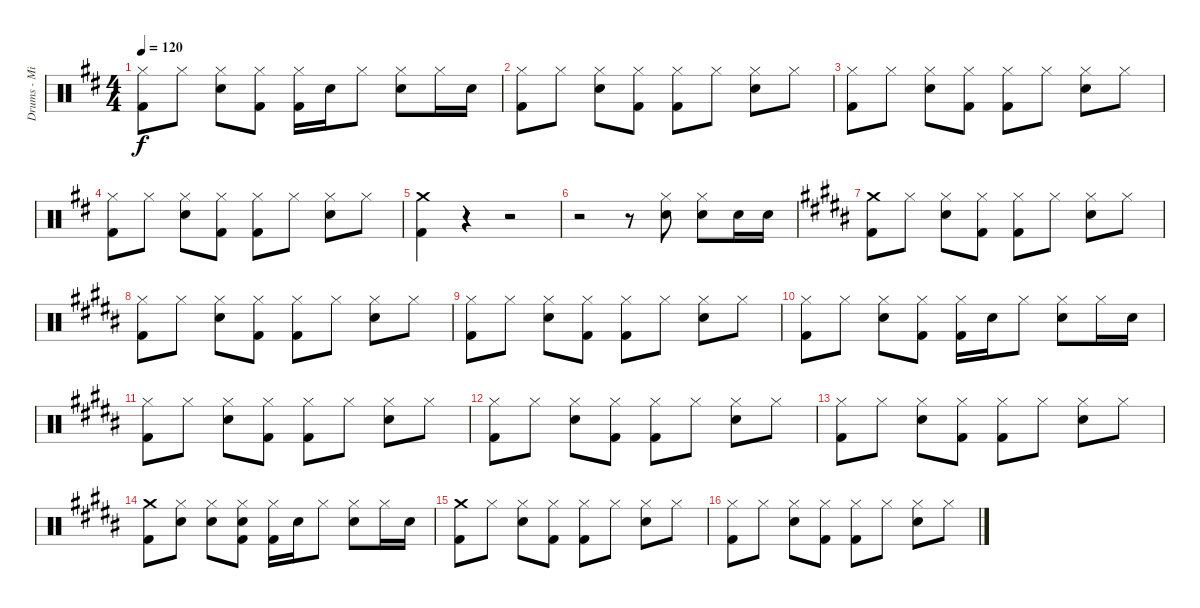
\track ("Drums - Minh-Thu" "Drums - Mi") {instrument percussion}
\staff {score}
\articulation defaults
\ts (4 4)
\tempo 120
\clef neutral
\ks d
("Hi-Hat (closed)" "Kick (hit) 2").8{dy f} "Hi-Hat (closed)".8 ("Hi-Hat (closed)" "Electric Snare (hit)").8 ("Hi-Hat (closed)" "Kick (hit) 2").8 ("Hi-Hat (closed)" "Kick (hit) 2").16 "Electric Snare (hit)".16 "Hi-Hat (closed)".8 ("Hi-Hat (closed)" "Electric Snare (hit)").8 "Hi-Hat (closed)".16 "Electric Snare (hit)".16 |
("Hi-Hat (closed)" "Kick (hit) 2").8 "Hi-Hat (closed)".8 ("Hi-Hat (closed)" "Electric Snare (hit)").8 ("Hi-Hat (closed)" "Kick (hit) 2").8 ("Hi-Hat (closed)" "Kick (hit) 2").8 "Hi-Hat (closed)".8 ("Hi-Hat (closed)" "Electric Snare (hit)").8 "Hi-Hat (closed)".8 |
("Hi-Hat (closed)" "Kick (hit) 2").8 "Hi-Hat (closed)".8 ("Hi-Hat (closed)" "Electric Snare (hit)").8 ("Hi-Hat (closed)" "Kick (hit) 2").8 ("Hi-Hat (closed)" "Kick (hit) 2").8 "Hi-Hat (closed)".8 ("Hi-Hat (closed)" "Electric Snare (hit)").8 "Hi-Hat (closed)".8 |
("Hi-Hat (closed)" "Kick (hit) 2").8 "Hi-Hat (closed)".8 ("Hi-Hat (closed)" "Electric Snare (hit)").8 ("Hi-Hat (closed)" "Kick (hit) 2").8 ("Hi-Hat (closed)" "Kick (hit) 2").8 "Hi-Hat (closed)".8 ("Hi-Hat (closed)" "Electric Snare (hit)").8 "Hi-Hat (closed)".8 |
("Crash medium (hit)" "Kick (hit) 2").4 r.4 r.2 |
r.2 r.8 ("Hi-Hat (closed)" "Electric Snare (hit)").8 ("Hi-Hat (closed)" "Electric Snare (hit)").8 "Electric Snare (hit)".16 "Electric Snare (hit)".16 |
\ks b
("Crash medium (hit)" "Kick (hit) 2").8 "Hi-Hat (closed)".8 ("Hi-Hat (closed)" "Electric Snare (hit)").8 ("Hi-Hat (closed)" "Kick (hit) 2").8 ("Hi-Hat (closed)" "Kick (hit) 2").8 "Hi-Hat (closed)".8 ("Hi-Hat (closed)" "Electric Snare (hit)").8 "Hi-Hat (closed)".8 |
("Hi-Hat (closed)" "Kick (hit) 2").8 "Hi-Hat (closed)".8 ("Hi-Hat (closed)" "Electric Snare (hit)").8 ("Hi-Hat (closed)" "Kick (hit) 2").8 ("Hi-Hat (closed)" "Kick (hit) 2").8 "Hi-Hat (closed)".8 ("Hi-Hat (closed)" "Electric Snare (hit)").8 "Hi-Hat (closed)".8 |
("Hi-Hat (closed)" "Kick (hit) 2").8 "Hi-Hat (closed)".8 ("Hi-Hat (closed)" "Electric Snare (hit)").8 ("Hi-Hat (closed)" "Kick (hit) 2").8 ("Hi-Hat (closed)" "Kick (hit) 2").8 "Hi-Hat (closed)".8 ("Hi-Hat (closed)" "Electric Snare (hit)").8 "Hi-Hat (closed)".8 |
("Hi-Hat (closed)" "Kick (hit) 2").8 "Hi-Hat (closed)".8 ("Hi-Hat (closed)" "Electric Snare (hit)").8 ("Hi-Hat (closed)" "Kick (hit) 2").8 ("Hi-Hat (closed)" "Kick (hit) 2").16 "Electric Snare (hit)".16 "Hi-Hat (closed)".8 ("Hi-Hat (closed)" "Electric Snare (hit)").8 "Hi-Hat (closed)".16 "Electric Snare (hit)".16 |
("Hi-Hat (closed)" "Kick (hit) 2").8 "Hi-Hat (closed)".8 ("Hi-Hat (closed)" "Electric Snare (hit)").8 ("Hi-Hat (closed)" "Kick (hit) 2").8 ("Hi-Hat (closed)" "Kick (hit) 2").8 "Hi-Hat (closed)".8 ("Hi-Hat (closed)" "Electric Snare (hit)").8 "Hi-Hat (closed)".8 |
("Hi-Hat (closed)" "Kick (hit) 2").8 "Hi-Hat (closed)".8 ("Hi-Hat (closed)" "Electric Snare (hit)").8 ("Hi-Hat (closed)" "Kick (hit) 2").8 ("Hi-Hat (closed)" "Kick (hit) 2").8 "Hi-Hat (closed)".8 ("Hi-Hat (closed)" "Electric Snare (hit)").8 "Hi-Hat (closed)".8 |
("Hi-Hat (closed)" "Kick (hit) 2").8 "Hi-Hat (closed)".8 ("Hi-Hat (closed)" "Electric Snare (hit)").8 ("Hi-Hat (closed)" "Kick (hit) 2").8 ("Hi-Hat (closed)" "Kick (hit) 2").8 "Hi-Hat (closed)".8 ("Hi-Hat (closed)" "Electric Snare (hit)").8 "Hi-Hat (closed)".8 |
("Crash medium (hit)" "Kick (hit) 2").8 ("Hi-Hat (closed)" "Electric Snare (hit)").8 ("Hi-Hat (closed)" "Electric Snare (hit)").8 ("Hi-Hat (closed)" "Electric Snare (hit)" "Kick (hit) 2").8 ("Hi-Hat (closed)" "Kick (hit) 2").16 "Electric Snare (hit)".16 "Hi-Hat (closed)".8 ("Hi-Hat (closed)" "Electric Snare (hit)").8 "Hi-Hat (closed)".16 "Electric Snare (hit)".16 |
("Crash medium (hit)" "Kick (hit) 2").8 "Hi-Hat (closed)".8 ("Hi-Hat (closed)" "Electric Snare (hit)").8 ("Hi-Hat (closed)" "Kick (hit) 2").8 ("Hi-Hat (closed)" "Kick (hit) 2").8 "Hi-Hat (closed)".8 ("Hi-Hat (closed)" "Electric Snare (hit)").8 "Hi-Hat (closed)".8 |
("Hi-Hat (closed)" "Kick (hit) 2").8 "Hi-Hat (closed)".8 ("Hi-Hat (closed)" "Electric Snare (hit)").8 ("Hi-Hat (closed)" "Kick (hit) 2").8 ("Hi-Hat (closed)" "Kick (hit) 2").8 "Hi-Hat (closed)".8 ("Hi-Hat (closed)" "Electric Snare (hit)").8 "Hi-Hat (closed)".8
